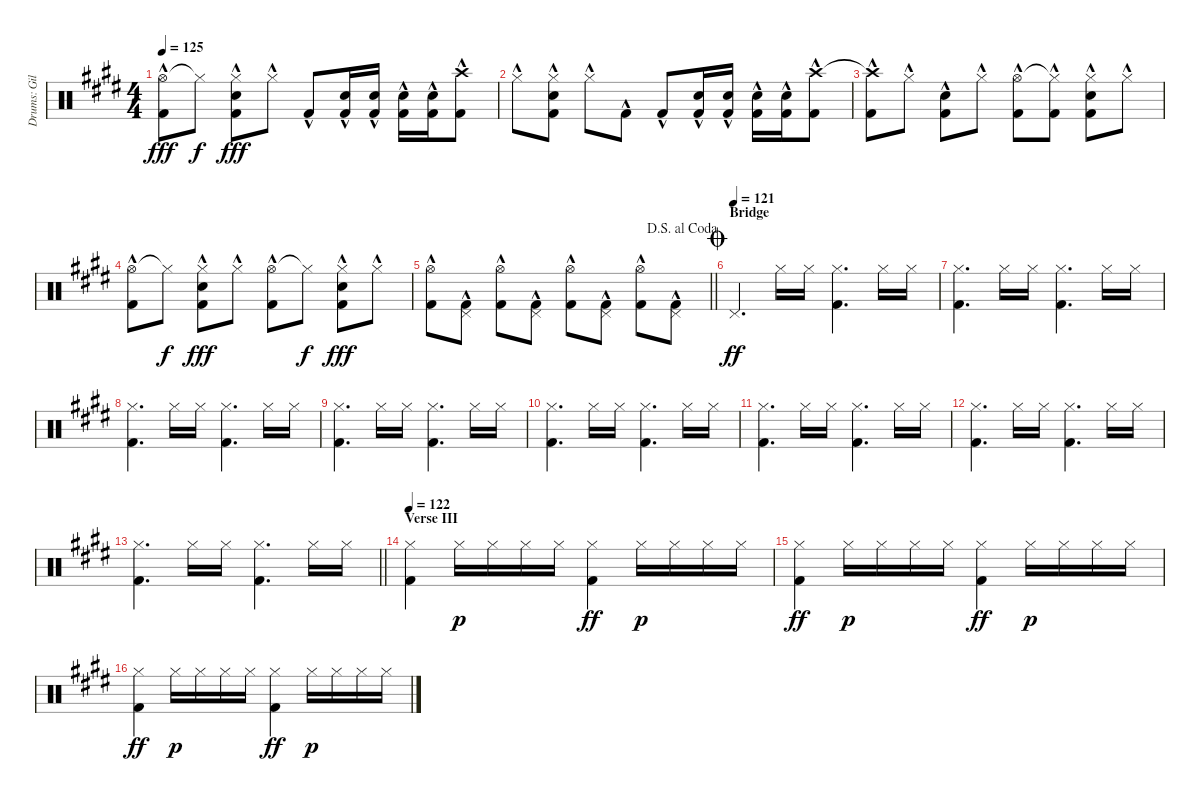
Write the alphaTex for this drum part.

\track ("Drums: Gil" "Drums: Gil") {instrument percussion}
\staff {score}
\articulation defaults
\ts (4 4)
\tempo 125
\clef neutral
\ks e
("Hi-Hat (open)"{hac} "Kick (hit) 2"{hac}).8{dy fff} "Hi-Hat (closed)"{t}.8{dy f} ("Hi-Hat (closed)"{hac} "Snare (hit) 2"{hac} "Kick (hit) 2"{hac}).8{dy fff} "Hi-Hat (closed)"{hac}.8 "Kick (hit) 2"{hac}.8 ("Snare (hit) 2"{hac} "Kick (hit) 2"{hac}).16 ("Snare (hit) 2"{hac} "Kick (hit) 2"{hac}).16 ("Snare (hit) 2"{hac} "Kick (hit) 2"{hac}).16 ("Snare (hit) 2"{hac} "Kick (hit) 2"{hac}).16 ("Crash high (hit)"{hac} "Kick (hit) 2"{hac}).8 |
"Hi-Hat (closed)"{hac}.8 ("Hi-Hat (closed)"{hac} "Snare (hit) 2"{hac} "Kick (hit) 2"{hac}).8 "Hi-Hat (closed)"{hac}.8 "Kick (hit) 2"{hac}.8 "Kick (hit) 2"{hac}.8 ("Snare (hit) 2"{hac} "Kick (hit) 2"{hac}).16 ("Snare (hit) 2"{hac} "Kick (hit) 2"{hac}).16 ("Snare (hit) 2"{hac} "Kick (hit) 2"{hac}).16 ("Snare (hit) 2"{hac} "Kick (hit) 2"{hac}).16 ("Crash high (hit)"{hac} "Kick (hit) 2"{hac}).8 |
("Crash high (hit)"{t} "Kick (hit) 2"{hac}).8 "Hi-Hat (closed)"{hac}.8 ("Snare (hit) 2"{hac} "Kick (hit) 2"{hac}).8 "Hi-Hat (closed)"{hac}.8 ("Hi-Hat (open)"{hac} "Kick (hit) 2"{hac}).8 ("Hi-Hat (closed)"{t} "Kick (hit) 2"{hac}).8 ("Hi-Hat (closed)"{hac} "Snare (hit) 2"{hac} "Kick (hit) 2"{hac}).8 "Hi-Hat (closed)"{hac}.8 |
("Hi-Hat (open)"{hac} "Kick (hit) 2"{hac}).8 "Hi-Hat (closed)"{t}.8{dy f} ("Hi-Hat (closed)"{hac} "Snare (hit) 2"{hac} "Kick (hit) 2"{hac}).8{dy fff} "Hi-Hat (closed)"{hac}.8 ("Hi-Hat (open)"{hac} "Kick (hit) 2"{hac}).8 "Hi-Hat (closed)"{t}.8{dy f} ("Hi-Hat (closed)"{hac} "Snare (hit) 2"{hac} "Kick (hit) 2"{hac}).8{dy fff} "Hi-Hat (closed)"{hac}.8 |
\jump dalsegnoalcoda
\barLineRight lightlight
("Hi-Hat (open)"{hac} "Kick (hit) 2"{hac}).8 ("Pedal Hi-Hat (hit)"{hac} "Kick (hit) 2"{hac}).8 ("Hi-Hat (open)"{hac} "Kick (hit) 2"{hac}).8 ("Pedal Hi-Hat (hit)"{hac} "Kick (hit) 2"{hac}).8 ("Hi-Hat (open)"{hac} "Kick (hit) 2"{hac}).8 ("Pedal Hi-Hat (hit)"{hac} "Kick (hit) 2"{hac}).8 ("Hi-Hat (open)"{hac} "Kick (hit) 2"{hac}).8 ("Pedal Hi-Hat (hit)"{hac} "Kick (hit) 2"{hac}).8 |
\section ("" "Bridge")
\jump coda
\tempo (121)
"Pedal Hi-Hat (hit)".4{d dy ff} "Hi-Hat (closed)".16 "Hi-Hat (closed)".16 ("Hi-Hat (closed)" "Kick (hit) 2").4{d} "Hi-Hat (closed)".16 "Hi-Hat (closed)".16 |
("Hi-Hat (closed)" "Kick (hit) 2").4{d} "Hi-Hat (closed)".16 "Hi-Hat (closed)".16 ("Hi-Hat (closed)" "Kick (hit) 2").4{d} "Hi-Hat (closed)".16 "Hi-Hat (closed)".16 |
("Hi-Hat (closed)" "Kick (hit) 2").4{d} "Hi-Hat (closed)".16 "Hi-Hat (closed)".16 ("Hi-Hat (closed)" "Kick (hit) 2").4{d} "Hi-Hat (closed)".16 "Hi-Hat (closed)".16 |
("Hi-Hat (closed)" "Kick (hit) 2").4{d} "Hi-Hat (closed)".16 "Hi-Hat (closed)".16 ("Hi-Hat (closed)" "Kick (hit) 2").4{d} "Hi-Hat (closed)".16 "Hi-Hat (closed)".16 |
("Hi-Hat (closed)" "Kick (hit) 2").4{d} "Hi-Hat (closed)".16 "Hi-Hat (closed)".16 ("Hi-Hat (closed)" "Kick (hit) 2").4{d} "Hi-Hat (closed)".16 "Hi-Hat (closed)".16 |
("Hi-Hat (closed)" "Kick (hit) 2").4{d} "Hi-Hat (closed)".16 "Hi-Hat (closed)".16 ("Hi-Hat (closed)" "Kick (hit) 2").4{d} "Hi-Hat (closed)".16 "Hi-Hat (closed)".16 |
("Hi-Hat (closed)" "Kick (hit) 2").4{d} "Hi-Hat (closed)".16 "Hi-Hat (closed)".16 ("Hi-Hat (closed)" "Kick (hit) 2").4{d} "Hi-Hat (closed)".16 "Hi-Hat (closed)".16 |
\barLineRight lightlight
("Hi-Hat (closed)" "Kick (hit) 2").4{d} "Hi-Hat (closed)".16 "Hi-Hat (closed)".16 ("Hi-Hat (closed)" "Kick (hit) 2").4{d} "Hi-Hat (closed)".16 "Hi-Hat (closed)".16 |
\section ("" "Verse III")
\tempo 122
("Hi-Hat (closed)" "Kick (hit) 2").4 "Hi-Hat (closed)".16{dy p} "Hi-Hat (closed)".16 "Hi-Hat (closed)".16 "Hi-Hat (closed)".16 ("Hi-Hat (closed)" "Kick (hit) 2").4{dy ff} "Hi-Hat (closed)".16{dy p} "Hi-Hat (closed)".16 "Hi-Hat (closed)".16 "Hi-Hat (closed)".16 |
("Hi-Hat (closed)" "Kick (hit) 2").4{dy ff} "Hi-Hat (closed)".16{dy p} "Hi-Hat (closed)".16 "Hi-Hat (closed)".16 "Hi-Hat (closed)".16 ("Hi-Hat (closed)" "Kick (hit) 2").4{dy ff} "Hi-Hat (closed)".16{dy p} "Hi-Hat (closed)".16 "Hi-Hat (closed)".16 "Hi-Hat (closed)".16 |
("Hi-Hat (closed)" "Kick (hit) 2").4{dy ff} "Hi-Hat (closed)".16{dy p} "Hi-Hat (closed)".16 "Hi-Hat (closed)".16 "Hi-Hat (closed)".16 ("Hi-Hat (closed)" "Kick (hit) 2").4{dy ff} "Hi-Hat (closed)".16{dy p} "Hi-Hat (closed)".16 "Hi-Hat (closed)".16 "Hi-Hat (closed)".16
